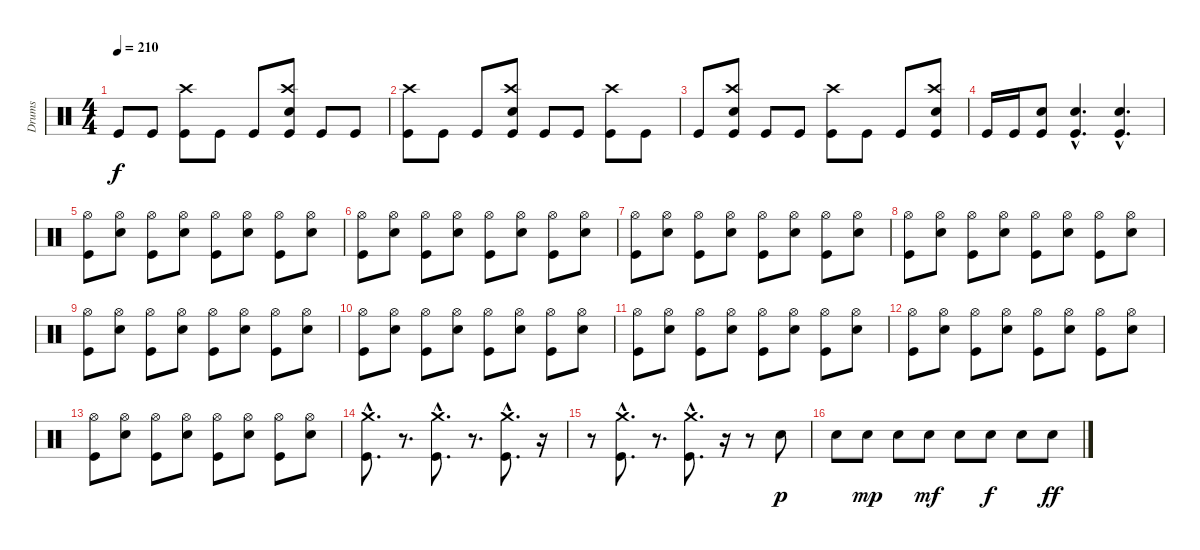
\track ("Drums" "Drums") {instrument percussion}
\staff {score}
\articulation defaults
\ts (4 4)
\tempo 210
\clef neutral
\ks c "Kick (hit)".8{dy f} "Kick (hit)".8
("Crash high (hit)" "Kick (hit)").8 "Kick (hit)".8 "Kick (hit)".8 ("Electric Snare (hit)" "Crash high (hit)" "Kick (hit)").8 "Kick (hit)".8 "Kick (hit)".8 |
("Crash high (hit)" "Kick (hit)").8 "Kick (hit)".8 "Kick (hit)".8 ("Electric Snare (hit)" "Crash high (hit)" "Kick (hit)").8 "Kick (hit)".8 "Kick (hit)".8 ("Crash high (hit)" "Kick (hit)").8 "Kick (hit)".8 |
"Kick (hit)".8 ("Electric Snare (hit)" "Crash high (hit)" "Kick (hit)").8 "Kick (hit)".8 "Kick (hit)".8 ("Crash high (hit)" "Kick (hit)").8 "Kick (hit)".8 "Kick (hit)".8 ("Electric Snare (hit)" "Crash high (hit)" "Kick (hit)").8 |
"Kick (hit)".16 "Kick (hit)".16 ("Electric Snare (hit)" "Kick (hit)").8 ("Electric Snare (hit)"{hac} "Kick (hit)"{hac}).4{d} ("Electric Snare (hit)"{hac} "Kick (hit)"{hac}).4{d} |
("Hi-Hat (open)" "Kick (hit)").8 ("Electric Snare (hit)" "Hi-Hat (open)").8 ("Hi-Hat (open)" "Kick (hit)").8 ("Electric Snare (hit)" "Hi-Hat (open)").8 ("Hi-Hat (open)" "Kick (hit)").8 ("Electric Snare (hit)" "Hi-Hat (open)").8 ("Hi-Hat (open)" "Kick (hit)").8 ("Electric Snare (hit)" "Hi-Hat (open)").8 |
("Hi-Hat (open)" "Kick (hit)").8 ("Electric Snare (hit)" "Hi-Hat (open)").8 ("Hi-Hat (open)" "Kick (hit)").8 ("Electric Snare (hit)" "Hi-Hat (open)").8 ("Hi-Hat (open)" "Kick (hit)").8 ("Electric Snare (hit)" "Hi-Hat (open)").8 ("Hi-Hat (open)" "Kick (hit)").8 ("Electric Snare (hit)" "Hi-Hat (open)").8 |
("Hi-Hat (open)" "Kick (hit)").8 ("Electric Snare (hit)" "Hi-Hat (open)").8 ("Hi-Hat (open)" "Kick (hit)").8 ("Electric Snare (hit)" "Hi-Hat (open)").8 ("Hi-Hat (open)" "Kick (hit)").8 ("Electric Snare (hit)" "Hi-Hat (open)").8 ("Hi-Hat (open)" "Kick (hit)").8 ("Electric Snare (hit)" "Hi-Hat (open)").8 |
("Hi-Hat (open)" "Kick (hit)").8 ("Electric Snare (hit)" "Hi-Hat (open)").8 ("Hi-Hat (open)" "Kick (hit)").8 ("Electric Snare (hit)" "Hi-Hat (open)").8 ("Hi-Hat (open)" "Kick (hit)").8 ("Electric Snare (hit)" "Hi-Hat (open)").8 ("Hi-Hat (open)" "Kick (hit)").8 ("Electric Snare (hit)" "Hi-Hat (open)").8 |
("Hi-Hat (open)" "Kick (hit)").8 ("Electric Snare (hit)" "Hi-Hat (open)").8 ("Hi-Hat (open)" "Kick (hit)").8 ("Electric Snare (hit)" "Hi-Hat (open)").8 ("Hi-Hat (open)" "Kick (hit)").8 ("Electric Snare (hit)" "Hi-Hat (open)").8 ("Hi-Hat (open)" "Kick (hit)").8 ("Electric Snare (hit)" "Hi-Hat (open)").8 |
("Hi-Hat (open)" "Kick (hit)").8 ("Electric Snare (hit)" "Hi-Hat (open)").8 ("Hi-Hat (open)" "Kick (hit)").8 ("Electric Snare (hit)" "Hi-Hat (open)").8 ("Hi-Hat (open)" "Kick (hit)").8 ("Electric Snare (hit)" "Hi-Hat (open)").8 ("Hi-Hat (open)" "Kick (hit)").8 ("Electric Snare (hit)" "Hi-Hat (open)").8 |
("Hi-Hat (open)" "Kick (hit)").8 ("Electric Snare (hit)" "Hi-Hat (open)").8 ("Hi-Hat (open)" "Kick (hit)").8 ("Electric Snare (hit)" "Hi-Hat (open)").8 ("Hi-Hat (open)" "Kick (hit)").8 ("Electric Snare (hit)" "Hi-Hat (open)").8 ("Hi-Hat (open)" "Kick (hit)").8 ("Electric Snare (hit)" "Hi-Hat (open)").8 |
("Hi-Hat (open)" "Kick (hit)").8 ("Electric Snare (hit)" "Hi-Hat (open)").8 ("Hi-Hat (open)" "Kick (hit)").8 ("Electric Snare (hit)" "Hi-Hat (open)").8 ("Hi-Hat (open)" "Kick (hit)").8 ("Electric Snare (hit)" "Hi-Hat (open)").8 ("Hi-Hat (open)" "Kick (hit)").8 ("Electric Snare (hit)" "Hi-Hat (open)").8 |
("Hi-Hat (open)" "Kick (hit)").8 ("Electric Snare (hit)" "Hi-Hat (open)").8 ("Hi-Hat (open)" "Kick (hit)").8 ("Electric Snare (hit)" "Hi-Hat (open)").8 ("Hi-Hat (open)" "Kick (hit)").8 ("Electric Snare (hit)" "Hi-Hat (open)").8 ("Hi-Hat (open)" "Kick (hit)").8 ("Electric Snare (hit)" "Hi-Hat (open)").8 |
("Crash medium (hit)"{hac} "Kick (hit)"{hac}).8{d} r.8{d} ("Crash medium (hit)"{hac} "Kick (hit)"{hac}).8{d} r.8{d} ("Crash medium (hit)"{hac} "Kick (hit)"{hac}).8{d} r.16 |
r.8 ("Crash medium (hit)"{hac} "Kick (hit)"{hac}).8{d} r.8{d} ("Crash medium (hit)"{hac} "Kick (hit)"{hac}).8{d} r.16 r.8 "Electric Snare (hit)".8{dy p} |
"Electric Snare (hit)".8 "Electric Snare (hit)".8{dy mp} "Electric Snare (hit)".8 "Electric Snare (hit)".8{dy mf} "Electric Snare (hit)".8 "Electric Snare (hit)".8{dy f} "Electric Snare (hit)".8 "Electric Snare (hit)".8{dy ff}
